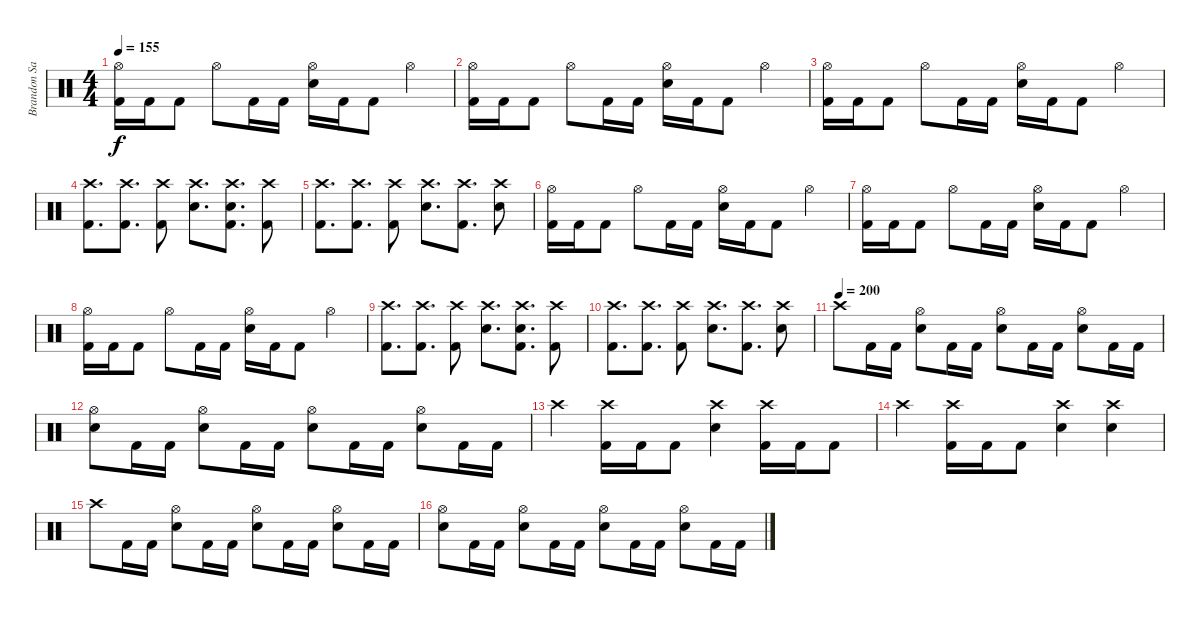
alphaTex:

\track ("Brandon Saller" "Brandon Sa") {instrument percussion}
\staff {score}
\articulation defaults
\ts (4 4)
\tempo 155
\clef neutral
\ks c
("Hi-Hat (open)" "Kick (hit) 2").16{dy f} "Kick (hit) 2".16 "Kick (hit) 2".8 "Hi-Hat (open)".8 "Kick (hit) 2".16 "Kick (hit) 2".16 ("Hi-Hat (open)" "Electric Snare (hit)").16 "Kick (hit) 2".16 "Kick (hit) 2".8 "Hi-Hat (open)".4 |
("Hi-Hat (open)" "Kick (hit) 2").16 "Kick (hit) 2".16 "Kick (hit) 2".8 "Hi-Hat (open)".8 "Kick (hit) 2".16 "Kick (hit) 2".16 ("Hi-Hat (open)" "Electric Snare (hit)").16 "Kick (hit) 2".16 "Kick (hit) 2".8 "Hi-Hat (open)".4 |
("Hi-Hat (open)" "Kick (hit) 2").16 "Kick (hit) 2".16 "Kick (hit) 2".8 "Hi-Hat (open)".8 "Kick (hit) 2".16 "Kick (hit) 2".16 ("Hi-Hat (open)" "Electric Snare (hit)").16 "Kick (hit) 2".16 "Kick (hit) 2".8 "Hi-Hat (open)".4 |
("Crash high (hit)" "Kick (hit) 2").8{d} ("Crash high (hit)" "Kick (hit) 2").8{d} ("Crash high (hit)" "Kick (hit) 2").8 ("Crash high (hit)" "Electric Snare (hit)").8{d} ("Crash high (hit)" "Electric Snare (hit)" "Kick (hit) 2").8{d} ("Crash high (hit)" "Kick (hit) 2").8 |
("Crash high (hit)" "Kick (hit) 2").8{d} ("Crash high (hit)" "Kick (hit) 2").8{d} ("Crash high (hit)" "Kick (hit) 2").8 ("Crash high (hit)" "Electric Snare (hit)").8{d} ("Crash high (hit)" "Kick (hit) 2").8{d} ("Crash high (hit)" "Electric Snare (hit)").8 |
("Hi-Hat (open)" "Kick (hit) 2").16 "Kick (hit) 2".16 "Kick (hit) 2".8 "Hi-Hat (open)".8 "Kick (hit) 2".16 "Kick (hit) 2".16 ("Hi-Hat (open)" "Electric Snare (hit)").16 "Kick (hit) 2".16 "Kick (hit) 2".8 "Hi-Hat (open)".4 |
("Hi-Hat (open)" "Kick (hit) 2").16 "Kick (hit) 2".16 "Kick (hit) 2".8 "Hi-Hat (open)".8 "Kick (hit) 2".16 "Kick (hit) 2".16 ("Hi-Hat (open)" "Electric Snare (hit)").16 "Kick (hit) 2".16 "Kick (hit) 2".8 "Hi-Hat (open)".4 |
("Hi-Hat (open)" "Kick (hit) 2").16 "Kick (hit) 2".16 "Kick (hit) 2".8 "Hi-Hat (open)".8 "Kick (hit) 2".16 "Kick (hit) 2".16 ("Hi-Hat (open)" "Electric Snare (hit)").16 "Kick (hit) 2".16 "Kick (hit) 2".8 "Hi-Hat (open)".4 |
("Crash high (hit)" "Kick (hit) 2").8{d} ("Crash high (hit)" "Kick (hit) 2").8{d} ("Crash high (hit)" "Kick (hit) 2").8 ("Crash high (hit)" "Electric Snare (hit)").8{d} ("Crash high (hit)" "Electric Snare (hit)" "Kick (hit) 2").8{d} ("Crash high (hit)" "Kick (hit) 2").8 |
("Crash high (hit)" "Kick (hit) 2").8{d} ("Crash high (hit)" "Kick (hit) 2").8{d} ("Crash high (hit)" "Kick (hit) 2").8 ("Crash high (hit)" "Electric Snare (hit)").8{d} ("Crash high (hit)" "Kick (hit) 2").8{d} ("Crash high (hit)" "Electric Snare (hit)").8 |
\tempo (200)
"Crash high (hit)".8 "Kick (hit) 2".16 "Kick (hit) 2".16 ("Hi-Hat (open)" "Electric Snare (hit)").8 "Kick (hit) 2".16 "Kick (hit) 2".16 ("Hi-Hat (open)" "Electric Snare (hit)").8 "Kick (hit) 2".16 "Kick (hit) 2".16 ("Hi-Hat (open)" "Electric Snare (hit)").8 "Kick (hit) 2".16 "Kick (hit) 2".16 |
("Hi-Hat (open)" "Electric Snare (hit)").8 "Kick (hit) 2".16 "Kick (hit) 2".16 ("Hi-Hat (open)" "Electric Snare (hit)").8 "Kick (hit) 2".16 "Kick (hit) 2".16 ("Hi-Hat (open)" "Electric Snare (hit)").8 "Kick (hit) 2".16 "Kick (hit) 2".16 ("Hi-Hat (open)" "Electric Snare (hit)").8 "Kick (hit) 2".16 "Kick (hit) 2".16 |
"Crash high (hit)".4 ("Crash high (hit)" "Kick (hit) 2").16 "Kick (hit) 2".16 "Kick (hit) 2".8 ("Crash high (hit)" "Electric Snare (hit)").4 ("Crash high (hit)" "Kick (hit) 2").16 "Kick (hit) 2".16 "Kick (hit) 2".8 |
"Crash high (hit)".4 ("Crash high (hit)" "Kick (hit) 2").16 "Kick (hit) 2".16 "Kick (hit) 2".8 ("Crash high (hit)" "Electric Snare (hit)").4 ("Crash high (hit)" "Electric Snare (hit)").4 |
"Crash high (hit)".8 "Kick (hit) 2".16 "Kick (hit) 2".16 ("Hi-Hat (open)" "Electric Snare (hit)").8 "Kick (hit) 2".16 "Kick (hit) 2".16 ("Hi-Hat (open)" "Electric Snare (hit)").8 "Kick (hit) 2".16 "Kick (hit) 2".16 ("Hi-Hat (open)" "Electric Snare (hit)").8 "Kick (hit) 2".16 "Kick (hit) 2".16 |
("Hi-Hat (open)" "Electric Snare (hit)").8 "Kick (hit) 2".16 "Kick (hit) 2".16 ("Hi-Hat (open)" "Electric Snare (hit)").8 "Kick (hit) 2".16 "Kick (hit) 2".16 ("Hi-Hat (open)" "Electric Snare (hit)").8 "Kick (hit) 2".16 "Kick (hit) 2".16 ("Hi-Hat (open)" "Electric Snare (hit)").8 "Kick (hit) 2".16 "Kick (hit) 2".16
